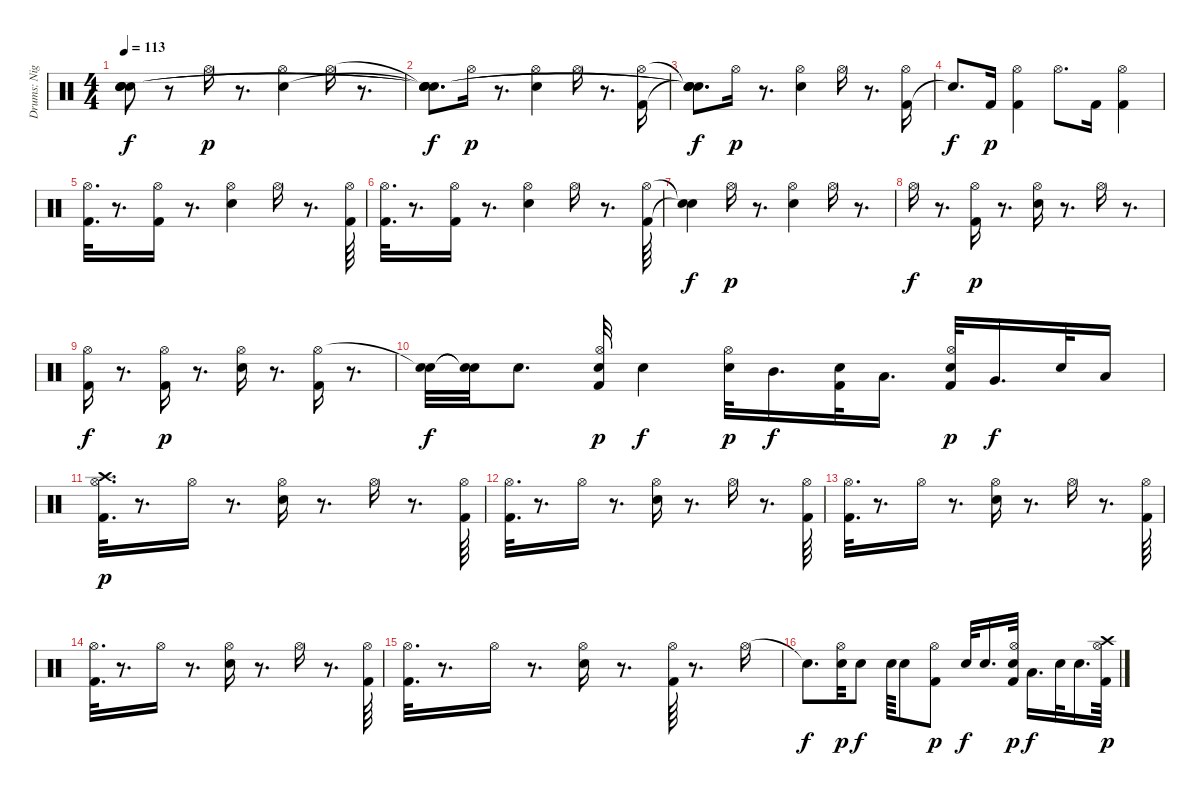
\track ("Drums: Nigel Olsson" "Drums: Nig") {instrument percussion}
\staff {score}
\articulation defaults
\ts (4 4)
\tempo 113
\clef neutral
\ks c
("Snare (hit)"{t} "Snare (hit)"{t} "Snare (hit)"{t} "Snare (hit)"{t}).8{dy f} r.8 "Hi-Hat (open)".16{dy p} r.8{d} ("Hi-Hat (open)" "Snare (hit) 2").4 "Hi-Hat (open)".16 r.8{d} |
("Snare (hit)"{t} "Snare (hit)"{t} "Snare (hit)"{t} "Snare (hit)"{t}).8{d dy f} "Hi-Hat (open)".16{dy p} r.8{d} ("Hi-Hat (open)" "Snare (hit) 2").4 "Hi-Hat (open)".16 r.8{d} ("Kick (hit) 2" "Hi-Hat (open)").16 |
("Snare (hit)"{t} "Snare (hit)"{t} "Snare (hit)"{t} "Snare (hit)"{t}).8{d dy f} "Hi-Hat (open)".16{dy p} r.8{d} ("Hi-Hat (open)" "Snare (hit) 2").4 "Hi-Hat (open)".16 r.8{d} ("Kick (hit) 2" "Hi-Hat (open)").16 |
"Snare (hit)"{t}.8{d dy f} "Kick (hit) 2".16{dy p} ("Hi-Hat (open)" "Kick (hit) 2").4 "Hi-Hat (open)".8{d} "Kick (hit) 2".16 ("Kick (hit) 2" "Hi-Hat (open)").4 |
("Kick (hit) 2" "Hi-Hat (open)").32{d} r.8{d} ("Kick (hit) 2" "Hi-Hat (open)").16 r.8{d} ("Snare (hit) 2" "Hi-Hat (open)").4 "Hi-Hat (open)".16 r.8{d} ("Kick (hit) 2" "Hi-Hat (open)").64 |
("Kick (hit) 2" "Hi-Hat (open)").32{d} r.8{d} ("Kick (hit) 2" "Hi-Hat (open)").16 r.8{d} ("Snare (hit) 2" "Hi-Hat (open)").4 "Hi-Hat (open)".16 r.8{d} ("Kick (hit) 2" "Hi-Hat (open)").64 |
("Snare (hit)"{t} "Snare (hit)"{t}).4{dy f} "Hi-Hat (open)".16{dy p} r.8{d} ("Snare (hit) 2" "Hi-Hat (open)").4 "Hi-Hat (open)".16 r.8{d} |
"Hi-Hat (open)".16{dy f} r.8{d} ("Kick (hit) 2" "Hi-Hat (open)").16{dy p} r.8{d} ("Snare (hit) 2" "Hi-Hat (open)").16 r.8{d} "Hi-Hat (open)".16 r.8{d} |
("Kick (hit) 2" "Hi-Hat (open)").16{dy f} r.8{d} ("Kick (hit) 2" "Hi-Hat (open)").16{dy p} r.8{d} ("Snare (hit) 2" "Hi-Hat (open)").16 r.8{d} ("Kick (hit) 2" "Hi-Hat (open)").16 r.8{d} |
("Snare (hit) 2" "Snare (hit)"{t}).32{dy f} ("Snare (hit)"{t} "Snare (hit)"{t}).32 "Electric Snare (hit)".8{d} ("Snare (hit) 2" "Kick (hit) 2" "Hi-Hat (open)").32{dy p} "Electric Snare (hit)".4{dy f} ("Snare (hit) 2" "Hi-Hat (open)").32{dy p} "Mid Tom (hit)".16{d dy f} ("Snare (hit) 2" "Kick (hit) 2").32 "Low Tom (hit)".16{d} ("Snare (hit) 2" "Kick (hit) 2" "Hi-Hat (open)").32{dy p} "Very Low Tom (hit)".16{d dy f} "Snare (hit) 2".32 "Low Floor Tom (hit)".16 |
("Kick (hit) 2" "Hi-Hat (open)" "Crash high (hit)").32{d dy p} r.8{d} "Hi-Hat (open)".16 r.8{d} ("Snare (hit) 2" "Hi-Hat (open)").16 r.8{d} "Hi-Hat (open)".16 r.8{d} ("Kick (hit) 2" "Hi-Hat (open)").64 |
("Kick (hit) 2" "Hi-Hat (open)").32{d} r.8{d} "Hi-Hat (open)".16 r.8{d} ("Snare (hit) 2" "Hi-Hat (open)").16 r.8{d} "Hi-Hat (open)".16 r.8{d} ("Kick (hit) 2" "Hi-Hat (open)").64 |
("Kick (hit) 2" "Hi-Hat (open)").32{d} r.8{d} "Hi-Hat (open)".16 r.8{d} ("Snare (hit) 2" "Hi-Hat (open)").16 r.8{d} "Hi-Hat (open)".16 r.8{d} ("Kick (hit) 2" "Hi-Hat (open)").64 |
("Kick (hit) 2" "Hi-Hat (open)").32{d} r.8{d} "Hi-Hat (open)".16 r.8{d} ("Snare (hit) 2" "Hi-Hat (open)").16 r.8{d} "Hi-Hat (open)".16 r.8{d} ("Kick (hit) 2" "Hi-Hat (open)").64 |
("Kick (hit) 2" "Hi-Hat (open)").32{d} r.8{d} "Hi-Hat (open)".16 r.8{d} ("Snare (hit) 2" "Hi-Hat (open)").16 r.8{d} ("Kick (hit) 2" "Hi-Hat (open)").64 r.8{d} "Hi-Hat (open)".16 |
"Snare (hit)"{t}.8{d dy f} ("Hi-Hat (open)" "Snare (hit) 2").32{dy p} "Electric Snare (hit)".8{dy f} "Snare (hit) 2".64 "Electric Snare (hit)".8 ("Hi-Hat (open)" "Kick (hit) 2").8{dy p} "Snare (hit) 2".32{dy f} "Electric Snare (hit)".16{d} ("Kick (hit) 2" "Hi-Hat (open)" "Snare (hit) 2").32{dy p} "Low Tom (hit)".16{d dy f} "Snare (hit) 2".32 "Electric Snare (hit)".16{d} ("Hi-Hat (open)" "Crash high (hit)" "Kick (hit) 2").64{dy p}
